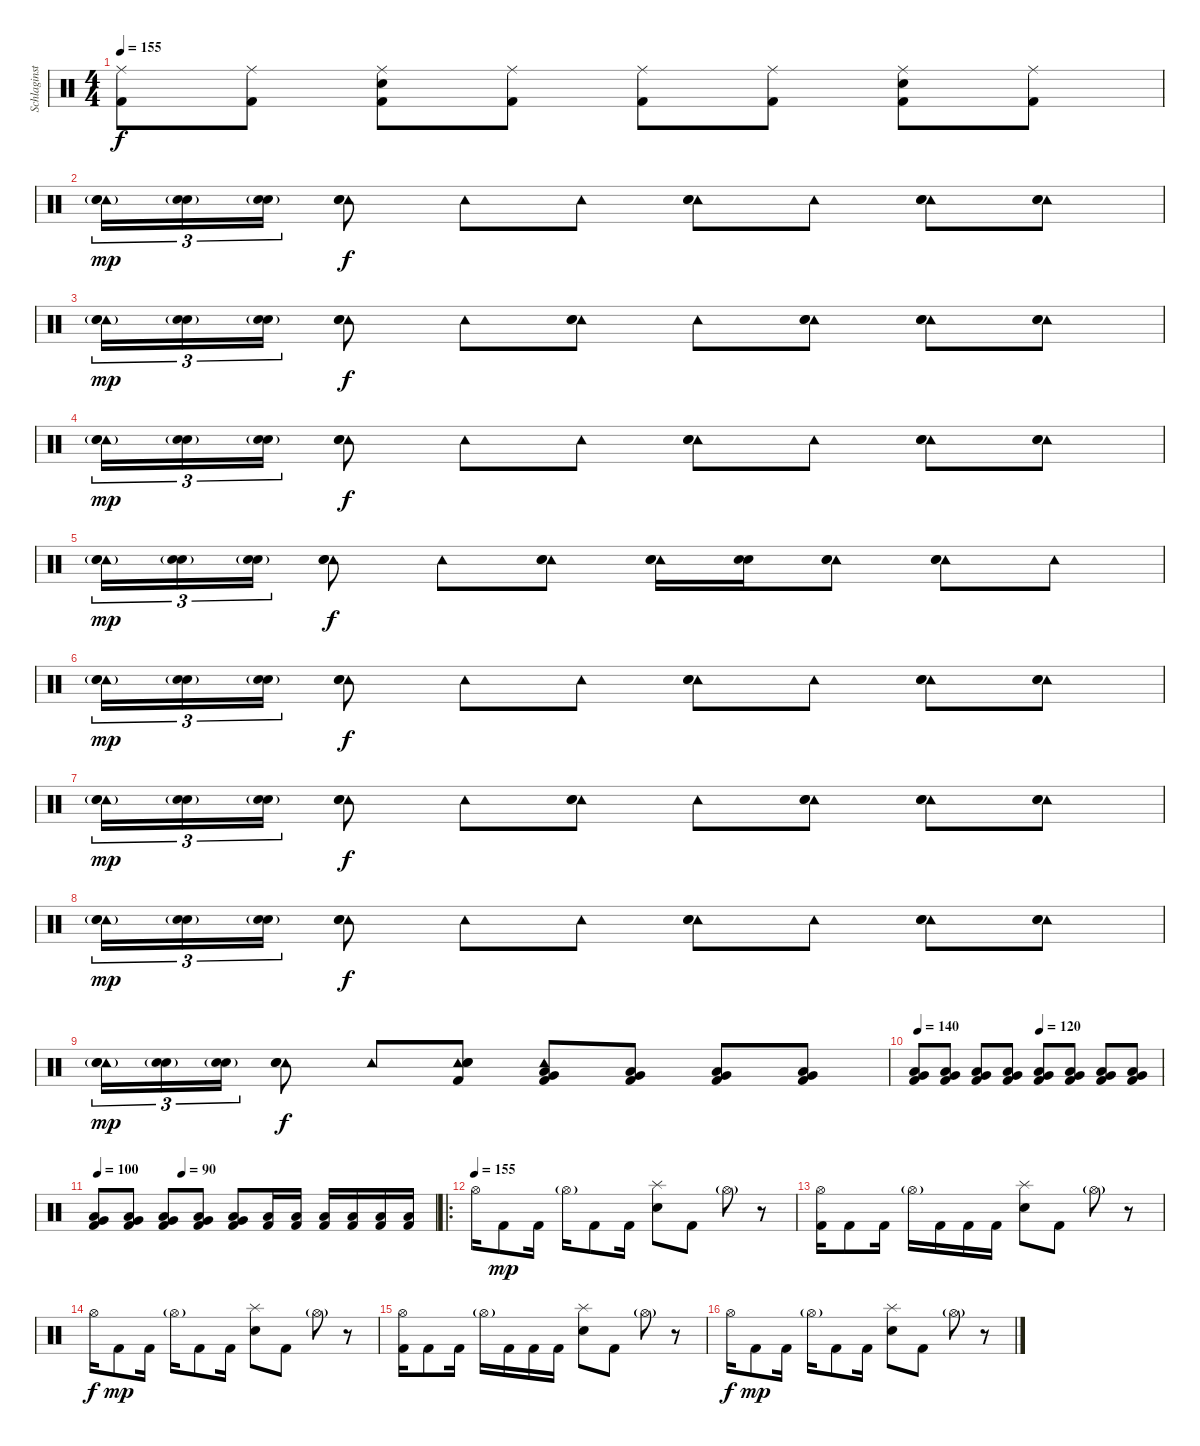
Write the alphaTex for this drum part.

\track ("Schlaginstrumente - Auswahl" "Schlaginst") {instrument percussion}
\staff {score}
\articulation defaults
\ts (4 4)
\tempo 155
\clef neutral
\ks c
("Ride (middle)" "Kick (hit) 2").8{dy f} ("Ride (middle)" "Kick (hit) 2").8 ("Ride (middle)" "Snare (hit) 2" "Kick (hit) 2").8 ("Ride (middle)" "Kick (hit) 2").8 ("Ride (middle)" "Kick (hit) 2").8 ("Ride (middle)" "Kick (hit) 2").8 ("Ride (middle)" "Snare (hit) 2" "Kick (hit) 2").8 ("Ride (middle)" "Kick (hit) 2").8 |
("Tambourine (hit)" "Snare (hit) 2"{g} "Snare (hit) 2"{g}).16{tu (3 2) dy mp} ("Snare (hit) 2"{g} "Snare (hit) 2"{g}).16{tu (3 2)} ("Snare (hit) 2"{g} "Snare (hit) 2"{g}).16{tu (3 2)} ("Tambourine (hit)" "Snare (hit) 2" "Snare (hit) 2").8{dy f} "Tambourine (hit)".8 "Tambourine (hit)".8 ("Tambourine (hit)" "Snare (hit) 2" "Snare (hit) 2").8 "Tambourine (hit)".8 ("Tambourine (hit)" "Snare (hit) 2" "Snare (hit) 2").8 ("Tambourine (hit)" "Snare (hit) 2" "Snare (hit) 2").8 |
("Tambourine (hit)" "Snare (hit) 2"{g} "Snare (hit) 2"{g}).16{tu (3 2) dy mp} ("Snare (hit) 2"{g} "Snare (hit) 2"{g}).16{tu (3 2)} ("Snare (hit) 2"{g} "Snare (hit) 2"{g}).16{tu (3 2)} ("Tambourine (hit)" "Snare (hit) 2" "Snare (hit) 2").8{dy f} "Tambourine (hit)".8 ("Tambourine (hit)" "Snare (hit) 2" "Snare (hit) 2").8 "Tambourine (hit)".8 ("Tambourine (hit)" "Snare (hit) 2" "Snare (hit) 2").8 ("Tambourine (hit)" "Snare (hit) 2" "Snare (hit) 2").8 ("Tambourine (hit)" "Snare (hit) 2" "Snare (hit) 2").8 |
("Tambourine (hit)" "Snare (hit) 2"{g} "Snare (hit) 2"{g}).16{tu (3 2) dy mp} ("Snare (hit) 2"{g} "Snare (hit) 2"{g}).16{tu (3 2)} ("Snare (hit) 2"{g} "Snare (hit) 2"{g}).16{tu (3 2)} ("Tambourine (hit)" "Snare (hit) 2" "Snare (hit) 2").8{dy f} "Tambourine (hit)".8 "Tambourine (hit)".8 ("Tambourine (hit)" "Snare (hit) 2" "Snare (hit) 2").8 "Tambourine (hit)".8 ("Tambourine (hit)" "Snare (hit) 2" "Snare (hit) 2").8 ("Tambourine (hit)" "Snare (hit) 2" "Snare (hit) 2").8 |
("Tambourine (hit)" "Snare (hit) 2"{g} "Snare (hit) 2"{g}).16{tu (3 2) dy mp} ("Snare (hit) 2"{g} "Snare (hit) 2"{g}).16{tu (3 2)} ("Snare (hit) 2"{g} "Snare (hit) 2"{g}).16{tu (3 2)} ("Tambourine (hit)" "Snare (hit) 2" "Snare (hit) 2").8{dy f} "Tambourine (hit)".8 ("Tambourine (hit)" "Snare (hit) 2" "Snare (hit) 2").8 ("Tambourine (hit)" "Snare (hit) 2" "Snare (hit) 2").16 ("Snare (hit) 2" "Snare (hit) 2").16 ("Tambourine (hit)" "Snare (hit) 2" "Snare (hit) 2").8 ("Tambourine (hit)" "Snare (hit) 2" "Snare (hit) 2").8 "Tambourine (hit)".8 |
("Tambourine (hit)" "Snare (hit) 2"{g} "Snare (hit) 2"{g}).16{tu (3 2) dy mp} ("Snare (hit) 2"{g} "Snare (hit) 2"{g}).16{tu (3 2)} ("Snare (hit) 2"{g} "Snare (hit) 2"{g}).16{tu (3 2)} ("Tambourine (hit)" "Snare (hit) 2" "Snare (hit) 2").8{dy f} "Tambourine (hit)".8 "Tambourine (hit)".8 ("Tambourine (hit)" "Snare (hit) 2" "Snare (hit) 2").8 "Tambourine (hit)".8 ("Tambourine (hit)" "Snare (hit) 2" "Snare (hit) 2").8 ("Tambourine (hit)" "Snare (hit) 2" "Snare (hit) 2").8 |
("Tambourine (hit)" "Snare (hit) 2"{g} "Snare (hit) 2"{g}).16{tu (3 2) dy mp} ("Snare (hit) 2"{g} "Snare (hit) 2"{g}).16{tu (3 2)} ("Snare (hit) 2"{g} "Snare (hit) 2"{g}).16{tu (3 2)} ("Tambourine (hit)" "Snare (hit) 2" "Snare (hit) 2").8{dy f} "Tambourine (hit)".8 ("Tambourine (hit)" "Snare (hit) 2" "Snare (hit) 2").8 "Tambourine (hit)".8 ("Tambourine (hit)" "Snare (hit) 2" "Snare (hit) 2").8 ("Tambourine (hit)" "Snare (hit) 2" "Snare (hit) 2").8 ("Tambourine (hit)" "Snare (hit) 2" "Snare (hit) 2").8 |
("Tambourine (hit)" "Snare (hit) 2"{g} "Snare (hit) 2"{g}).16{tu (3 2) dy mp} ("Snare (hit) 2"{g} "Snare (hit) 2"{g}).16{tu (3 2)} ("Snare (hit) 2"{g} "Snare (hit) 2"{g}).16{tu (3 2)} ("Tambourine (hit)" "Snare (hit) 2" "Snare (hit) 2").8{dy f} "Tambourine (hit)".8 "Tambourine (hit)".8 ("Tambourine (hit)" "Snare (hit) 2" "Snare (hit) 2").8 "Tambourine (hit)".8 ("Tambourine (hit)" "Snare (hit) 2" "Snare (hit) 2").8 ("Tambourine (hit)" "Snare (hit) 2" "Snare (hit) 2").8 |
("Tambourine (hit)" "Snare (hit) 2"{g} "Snare (hit) 2"{g}).16{tu (3 2) dy mp} ("Snare (hit) 2"{g} "Snare (hit) 2"{g}).16{tu (3 2)} ("Snare (hit) 2"{g} "Snare (hit) 2"{g}).16{tu (3 2)} ("Tambourine (hit)" "Snare (hit) 2" "Snare (hit) 2").8{dy f} "Tambourine (hit)".8 ("Tambourine (hit)" "Snare (hit) 2" "Snare (hit) 2" "Kick (hit) 2").8 ("Tambourine (hit)" "Very Low Tom (hit)" "Low Floor Tom (hit)" "Kick (hit) 2").8 ("Very Low Tom (hit)" "Low Floor Tom (hit)" "Kick (hit) 2").8 ("Very Low Tom (hit)" "Low Floor Tom (hit)" "Kick (hit) 2").8 ("Very Low Tom (hit)" "Low Floor Tom (hit)" "Kick (hit) 2").8 |
\tempo 140
\tempo (120 0.5)
("Very Low Tom (hit)" "Low Floor Tom (hit)" "Kick (hit) 2").8 ("Very Low Tom (hit)" "Low Floor Tom (hit)" "Kick (hit) 2").8 ("Very Low Tom (hit)" "Low Floor Tom (hit)" "Kick (hit) 2").8 ("Very Low Tom (hit)" "Low Floor Tom (hit)" "Kick (hit) 2").8 ("Very Low Tom (hit)" "Low Floor Tom (hit)" "Kick (hit) 2").8 ("Very Low Tom (hit)" "Low Floor Tom (hit)" "Kick (hit) 2").8 ("Very Low Tom (hit)" "Low Floor Tom (hit)" "Kick (hit) 2").8 ("Very Low Tom (hit)" "Low Floor Tom (hit)" "Kick (hit) 2").8 |
\tempo 100
\tempo (90 0.25)
("Very Low Tom (hit)" "Low Floor Tom (hit)" "Kick (hit) 2").8 ("Very Low Tom (hit)" "Low Floor Tom (hit)" "Kick (hit) 2").8 ("Very Low Tom (hit)" "Low Floor Tom (hit)" "Kick (hit) 2").8 ("Very Low Tom (hit)" "Low Floor Tom (hit)" "Kick (hit) 2").8 ("Very Low Tom (hit)" "Low Floor Tom (hit)" "Kick (hit) 2").8 ("Low Floor Tom (hit)" "Kick (hit) 2").16 ("Low Floor Tom (hit)" "Kick (hit) 2").16 ("Low Floor Tom (hit)" "Kick (hit) 2").16 ("Low Floor Tom (hit)" "Kick (hit) 2").16 ("Low Floor Tom (hit)" "Kick (hit) 2").16 ("Low Floor Tom (hit)" "Kick (hit) 2").16 |
\ro
\tempo (155)
"Hi-Hat (open)".16 "Kick (hit) 2".8{dy mp} "Kick (hit) 2".16 "Hi-Hat (open)"{g}.16 "Kick (hit) 2".8 "Kick (hit) 2".16 ("Splash (hit)" "Snare (hit) 2").8 "Kick (hit) 2".8 "Hi-Hat (open)"{g}.8 r.8 |
("Hi-Hat (open)" "Kick (hit) 2").16 "Kick (hit) 2".8 "Kick (hit) 2".16 "Hi-Hat (open)"{g}.16 "Kick (hit) 2".16 "Kick (hit) 2".16 "Kick (hit) 2".16 ("Splash (hit)" "Snare (hit) 2").8 "Kick (hit) 2".8 "Hi-Hat (open)"{g}.8 r.8 |
"Hi-Hat (open)".16{dy f} "Kick (hit) 2".8{dy mp} "Kick (hit) 2".16 "Hi-Hat (open)"{g}.16 "Kick (hit) 2".8 "Kick (hit) 2".16 ("Splash (hit)" "Snare (hit) 2").8 "Kick (hit) 2".8 "Hi-Hat (open)"{g}.8 r.8 |
("Hi-Hat (open)" "Kick (hit) 2").16 "Kick (hit) 2".8 "Kick (hit) 2".16 "Hi-Hat (open)"{g}.16 "Kick (hit) 2".16 "Kick (hit) 2".16 "Kick (hit) 2".16 ("Splash (hit)" "Snare (hit) 2").8 "Kick (hit) 2".8 "Hi-Hat (open)"{g}.8 r.8 |
"Hi-Hat (open)".16{dy f} "Kick (hit) 2".8{dy mp} "Kick (hit) 2".16 "Hi-Hat (open)"{g}.16 "Kick (hit) 2".8 "Kick (hit) 2".16 ("Splash (hit)" "Snare (hit) 2").8 "Kick (hit) 2".8 "Hi-Hat (open)"{g}.8 r.8
